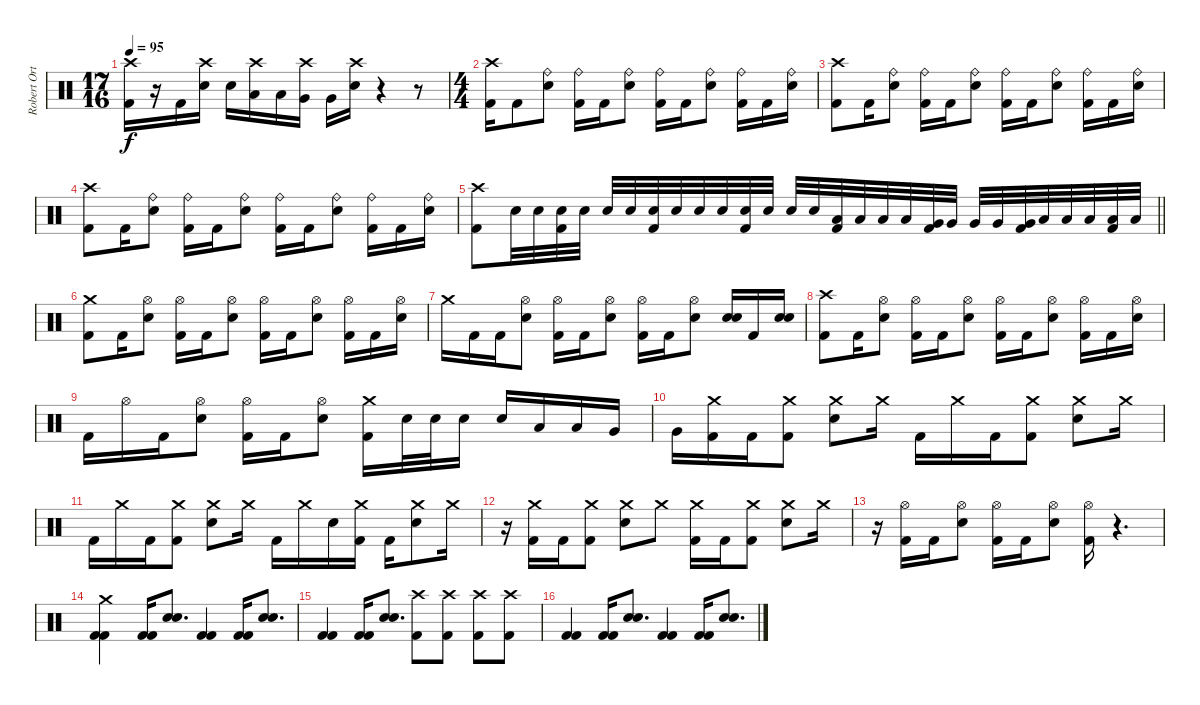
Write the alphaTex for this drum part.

\track ("Robert Ortiz (Drums)" "Robert Ort") {instrument percussion}
\staff {score}
\articulation defaults
\ts (17 16)
\tempo 95
\clef neutral
\ks c
("Crash high (hit)" "Kick (hit) 2").16{dy f} r.16 "Kick (hit) 2".16 ("Crash high (hit)" "Electric Snare (hit)").16 "Electric Snare (hit)".16 ("Crash high (hit)" "Low Tom (hit)").16 "Low Tom (hit)".16 ("Crash high (hit)" "Very Low Tom (hit)").16 "Very Low Tom (hit)".16 ("Crash high (hit)" "Electric Snare (hit)").16 r.4 r.8 |
\ts (4 4)
("Crash high (hit)" "Kick (hit) 2").16 "Kick (hit) 2".8 ("Ride (bell)" "Electric Snare (hit)").8 ("Ride (bell)" "Kick (hit) 2").16 "Kick (hit) 2".16 ("Ride (bell)" "Electric Snare (hit)").8 ("Ride (bell)" "Kick (hit) 2").16 "Kick (hit) 2".16 ("Ride (bell)" "Electric Snare (hit)").8 ("Ride (bell)" "Kick (hit) 2").16 "Kick (hit) 2".16 ("Ride (bell)" "Electric Snare (hit)").16 |
("Crash high (hit)" "Kick (hit) 2").8 "Kick (hit) 2".16 ("Ride (bell)" "Electric Snare (hit)").8 ("Ride (bell)" "Kick (hit) 2").16 "Kick (hit) 2".16 ("Ride (bell)" "Electric Snare (hit)").8 ("Ride (bell)" "Kick (hit) 2").16 "Kick (hit) 2".16 ("Ride (bell)" "Electric Snare (hit)").8 ("Ride (bell)" "Kick (hit) 2").16 "Kick (hit) 2".16 ("Ride (bell)" "Electric Snare (hit)").16 |
("Crash high (hit)" "Kick (hit) 2").8 "Kick (hit) 2".16 ("Ride (bell)" "Electric Snare (hit)").8 ("Ride (bell)" "Kick (hit) 2").16 "Kick (hit) 2".16 ("Ride (bell)" "Electric Snare (hit)").8 ("Ride (bell)" "Kick (hit) 2").16 "Kick (hit) 2".16 ("Ride (bell)" "Electric Snare (hit)").8 ("Ride (bell)" "Kick (hit) 2").16 "Kick (hit) 2".16 ("Ride (bell)" "Electric Snare (hit)").16 |
\barLineRight lightlight
("Crash high (hit)" "Kick (hit) 2").8 "Electric Snare (hit)".32 "Electric Snare (hit)".32 ("Electric Snare (hit)" "Kick (hit) 2").32 "Electric Snare (hit)".32 "Electric Snare (hit)".32 "Electric Snare (hit)".32 ("Electric Snare (hit)" "Kick (hit) 2").32 "Electric Snare (hit)".32 "Electric Snare (hit)".32 "Electric Snare (hit)".32 ("Electric Snare (hit)" "Kick (hit) 2").32 "Electric Snare (hit)".32 "Electric Snare (hit)".32 "Electric Snare (hit)".32 ("Low Tom (hit)" "Kick (hit) 2").32 "Low Tom (hit)".32 "Low Tom (hit)".32 "Low Tom (hit)".32 ("Very Low Tom (hit)" "Kick (hit) 2").32 "Very Low Tom (hit)".32 "Very Low Tom (hit)".32 "Very Low Tom (hit)".32 ("Very Low Tom (hit)" "Kick (hit) 2").32 "Low Floor Tom (hit)".32 "Low Floor Tom (hit)".32 "Low Floor Tom (hit)".32 ("Low Floor Tom (hit)" "Kick (hit) 2").32 "Low Floor Tom (hit)".32 |
("Crash medium (hit)" "Kick (hit) 2").8 "Kick (hit) 2".16 ("Hi-Hat (open)" "Electric Snare (hit)").8 ("Hi-Hat (open)" "Kick (hit) 2").16 "Kick (hit) 2".16 ("Hi-Hat (open)" "Electric Snare (hit)").8 ("Hi-Hat (open)" "Kick (hit) 2").16 "Kick (hit) 2".16 ("Hi-Hat (open)" "Electric Snare (hit)").8 ("Hi-Hat (open)" "Kick (hit) 2").16 "Kick (hit) 2".16 ("Hi-Hat (open)" "Electric Snare (hit)").16 |
"Crash medium (hit)".16 "Kick (hit) 2".16 "Kick (hit) 2".16 ("Hi-Hat (open)" "Electric Snare (hit)").8 ("Hi-Hat (open)" "Kick (hit) 2").16 "Kick (hit) 2".16 ("Hi-Hat (open)" "Electric Snare (hit)").8 ("Hi-Hat (open)" "Kick (hit) 2").16 "Kick (hit) 2".16 ("Hi-Hat (open)" "Electric Snare (hit)").8 ("Electric Snare (hit)" "Electric Snare (hit)").16 "Kick (hit) 2".16 ("Electric Snare (hit)" "Electric Snare (hit)").16 |
("Crash high (hit)" "Kick (hit) 2").8 "Kick (hit) 2".16 ("Hi-Hat (open)" "Electric Snare (hit)").8 ("Hi-Hat (open)" "Kick (hit) 2").16 "Kick (hit) 2".16 ("Hi-Hat (open)" "Electric Snare (hit)").8 ("Hi-Hat (open)" "Kick (hit) 2").16 "Kick (hit) 2".16 ("Hi-Hat (open)" "Electric Snare (hit)").8 ("Hi-Hat (open)" "Kick (hit) 2").16 "Kick (hit) 2".16 ("Hi-Hat (open)" "Electric Snare (hit)").16 |
"Kick (hit) 2".16 "Hi-Hat (open)".16 "Kick (hit) 2".16 ("Hi-Hat (open)" "Electric Snare (hit)").8 ("Hi-Hat (open)" "Kick (hit) 2").16 "Kick (hit) 2".16 ("Hi-Hat (open)" "Electric Snare (hit)").8 ("Crash medium (hit)" "Kick (hit) 2").16 "Electric Snare (hit)".32 "Electric Snare (hit)".32 "Electric Snare (hit)".16 "Electric Snare (hit)".16 "Low Tom (hit)".16 "Low Tom (hit)".16 "Very Low Tom (hit)".16 |
"Very Low Tom (hit)".16 ("Crash medium (hit)" "Kick (hit) 2").16 "Kick (hit) 2".16 ("Crash medium (hit)" "Kick (hit) 2").8 ("Crash medium (hit)" "Electric Snare (hit)").8 "Crash medium (hit)".16 "Kick (hit) 2".16 "Crash medium (hit)".16 "Kick (hit) 2".16 ("Crash medium (hit)" "Kick (hit) 2").8 ("Crash medium (hit)" "Electric Snare (hit)").8 "Crash medium (hit)".16 |
"Kick (hit) 2".16 "Crash medium (hit)".16 "Kick (hit) 2".16 ("Crash medium (hit)" "Kick (hit) 2").8 ("Crash medium (hit)" "Electric Snare (hit)").8 "Crash medium (hit)".16 "Kick (hit) 2".16 "Crash medium (hit)".16 "Electric Snare (hit)".16 ("Crash medium (hit)" "Kick (hit) 2").16 "Kick (hit) 2".16 ("Crash medium (hit)" "Electric Snare (hit)").8 "Crash medium (hit)".16 |
r.16 ("Crash medium (hit)" "Kick (hit) 2").16 "Kick (hit) 2".16 ("Crash medium (hit)" "Kick (hit) 2").8 ("Crash medium (hit)" "Electric Snare (hit)").8 "Crash medium (hit)".8 ("Crash medium (hit)" "Kick (hit) 2").16 "Kick (hit) 2".16 ("Crash medium (hit)" "Kick (hit) 2").8 ("Crash medium (hit)" "Electric Snare (hit)").8 "Crash medium (hit)".16 |
r.16 ("Hi-Hat (open)" "Kick (hit) 2").16 "Kick (hit) 2".16 ("Hi-Hat (open)" "Electric Snare (hit)").8 ("Hi-Hat (open)" "Kick (hit) 2").16 "Kick (hit) 2".16 ("Hi-Hat (open)" "Electric Snare (hit)").8 ("Hi-Hat (open)" "Kick (hit) 2").16 r.4{d} |
("Crash medium (hit)" "Kick (hit) 2" "Kick (hit) 2").4 ("Kick (hit) 2" "Kick (hit) 2").16 ("Electric Snare (hit)" "Electric Snare (hit)").8{d} ("Kick (hit) 2" "Kick (hit) 2").4 ("Kick (hit) 2" "Kick (hit) 2").16 ("Electric Snare (hit)" "Electric Snare (hit)").8{d} |
("Kick (hit) 2" "Kick (hit) 2").4 ("Kick (hit) 2" "Kick (hit) 2").16 ("Electric Snare (hit)" "Electric Snare (hit)").8{d} ("Crash high (hit)" "Kick (hit) 2").8 ("Crash high (hit)" "Kick (hit) 2").8 ("Crash high (hit)" "Kick (hit) 2").8 ("Crash high (hit)" "Kick (hit) 2").8 |
("Kick (hit) 2" "Kick (hit) 2").4 ("Kick (hit) 2" "Kick (hit) 2").16 ("Electric Snare (hit)" "Electric Snare (hit)").8{d} ("Kick (hit) 2" "Kick (hit) 2").4 ("Kick (hit) 2" "Kick (hit) 2").16 ("Electric Snare (hit)" "Electric Snare (hit)").8{d}
